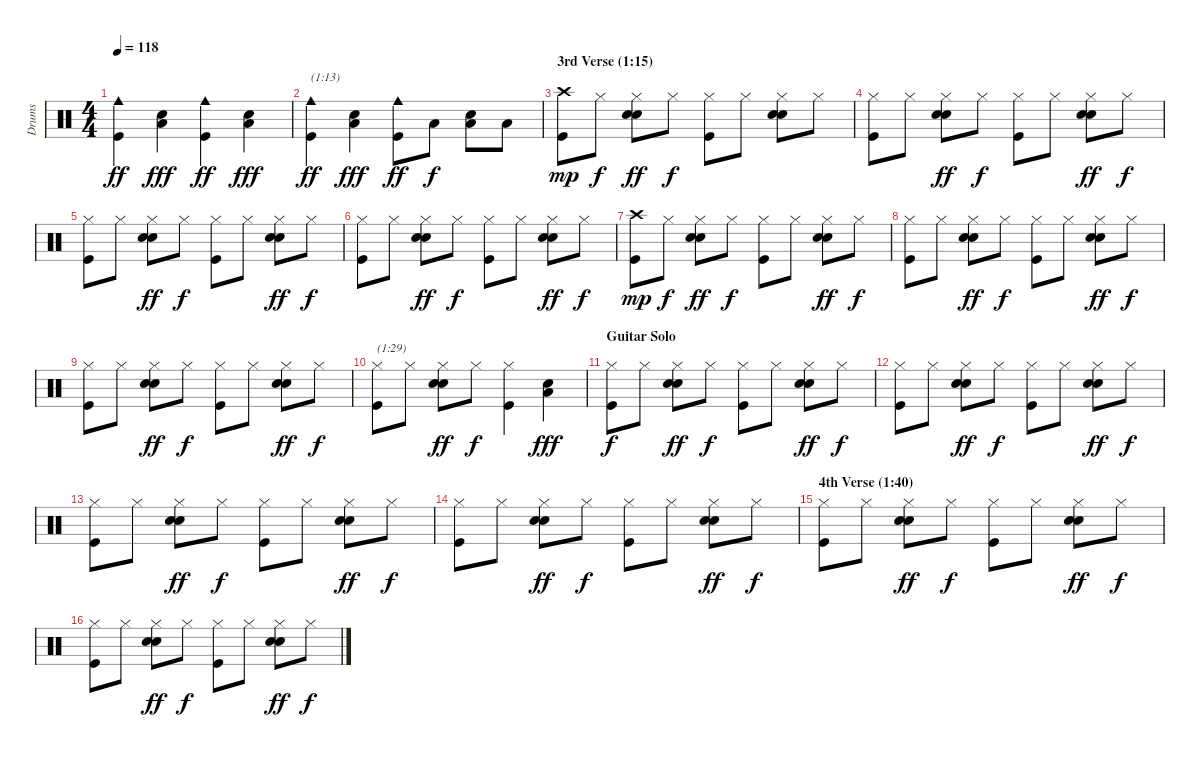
\track ("Drums" "Drums") {instrument percussion}
\staff {score}
\articulation defaults
\ts (4 4)
\tempo 118
\clef neutral
\ks c
("Cowbell medium (hit)" "Kick (hit)").4{dy ff} ("Electric Snare (hit)" "Low Floor Tom (hit)").4{dy fff} ("Cowbell medium (hit)" "Kick (hit)").4{dy ff} ("Electric Snare (hit)" "Low Floor Tom (hit)").4{dy fff} |
("Cowbell medium (hit)" "Kick (hit)").4{txt "(1:13)" dy ff} ("Electric Snare (hit)" "Low Floor Tom (hit)").4{dy fff} ("Cowbell medium (hit)" "Kick (hit)").8{dy ff} "Low Floor Tom (hit)".8{dy f} ("Electric Snare (hit)" "Low Floor Tom (hit)").8 "Low Floor Tom (hit)".8 |
\section ("" "3rd Verse (1:15)")
("Crash high (hit)" "Kick (hit)").8{dy mp} "Hi-Hat (closed)".8{dy f} ("Hi-Hat (closed)" "Electric Snare (hit)" "Snare (hit) 2").8{dy ff} "Hi-Hat (closed)".8{dy f} ("Hi-Hat (closed)" "Kick (hit)").8 "Hi-Hat (closed)".8 ("Hi-Hat (closed)" "Electric Snare (hit)" "Snare (hit) 2").8 "Hi-Hat (closed)".8 |
("Hi-Hat (closed)" "Kick (hit)").8 "Hi-Hat (closed)".8 ("Hi-Hat (closed)" "Electric Snare (hit)" "Snare (hit) 2").8{dy ff} "Hi-Hat (closed)".8{dy f} ("Hi-Hat (closed)" "Kick (hit)").8 "Hi-Hat (closed)".8 ("Hi-Hat (closed)" "Electric Snare (hit)" "Snare (hit) 2").8{dy ff} "Hi-Hat (closed)".8{dy f} |
("Hi-Hat (closed)" "Kick (hit)").8 "Hi-Hat (closed)".8 ("Hi-Hat (closed)" "Electric Snare (hit)" "Snare (hit) 2").8{dy ff} "Hi-Hat (closed)".8{dy f} ("Hi-Hat (closed)" "Kick (hit)").8 "Hi-Hat (closed)".8 ("Hi-Hat (closed)" "Electric Snare (hit)" "Snare (hit) 2").8{dy ff} "Hi-Hat (closed)".8{dy f} |
("Hi-Hat (closed)" "Kick (hit)").8 "Hi-Hat (closed)".8 ("Hi-Hat (closed)" "Electric Snare (hit)" "Snare (hit) 2").8{dy ff} "Hi-Hat (closed)".8{dy f} ("Hi-Hat (closed)" "Kick (hit)").8 "Hi-Hat (closed)".8 ("Hi-Hat (closed)" "Electric Snare (hit)" "Snare (hit) 2").8{dy ff} "Hi-Hat (closed)".8{dy f} |
("Crash high (hit)" "Kick (hit)").8{dy mp} "Hi-Hat (closed)".8{dy f} ("Hi-Hat (closed)" "Electric Snare (hit)" "Snare (hit) 2").8{dy ff} "Hi-Hat (closed)".8{dy f} ("Hi-Hat (closed)" "Kick (hit)").8 "Hi-Hat (closed)".8 ("Hi-Hat (closed)" "Electric Snare (hit)" "Snare (hit) 2").8{dy ff} "Hi-Hat (closed)".8{dy f} |
("Hi-Hat (closed)" "Kick (hit)").8 "Hi-Hat (closed)".8 ("Hi-Hat (closed)" "Electric Snare (hit)" "Snare (hit) 2").8{dy ff} "Hi-Hat (closed)".8{dy f} ("Hi-Hat (closed)" "Kick (hit)").8 "Hi-Hat (closed)".8 ("Hi-Hat (closed)" "Electric Snare (hit)" "Snare (hit) 2").8{dy ff} "Hi-Hat (closed)".8{dy f} |
("Hi-Hat (closed)" "Kick (hit)").8 "Hi-Hat (closed)".8 ("Hi-Hat (closed)" "Electric Snare (hit)" "Snare (hit) 2").8{dy ff} "Hi-Hat (closed)".8{dy f} ("Hi-Hat (closed)" "Kick (hit)").8 "Hi-Hat (closed)".8 ("Hi-Hat (closed)" "Electric Snare (hit)" "Snare (hit) 2").8{dy ff} "Hi-Hat (closed)".8{dy f} |
("Hi-Hat (closed)" "Kick (hit)").8{txt "(1:29)"} "Hi-Hat (closed)".8 ("Hi-Hat (closed)" "Electric Snare (hit)" "Snare (hit) 2").8{dy ff} "Hi-Hat (closed)".8{dy f} ("Hi-Hat (closed)" "Kick (hit)").4 ("Electric Snare (hit)" "Low Floor Tom (hit)").4{dy fff} |
\section ("" "Guitar Solo ")
("Hi-Hat (closed)" "Kick (hit)").8{dy f} "Hi-Hat (closed)".8 ("Hi-Hat (closed)" "Electric Snare (hit)" "Snare (hit) 2").8{dy ff} "Hi-Hat (closed)".8{dy f} ("Hi-Hat (closed)" "Kick (hit)").8 "Hi-Hat (closed)".8 ("Hi-Hat (closed)" "Electric Snare (hit)" "Snare (hit) 2").8{dy ff} "Hi-Hat (closed)".8{dy f} |
("Hi-Hat (closed)" "Kick (hit)").8 "Hi-Hat (closed)".8 ("Hi-Hat (closed)" "Electric Snare (hit)" "Snare (hit) 2").8{dy ff} "Hi-Hat (closed)".8{dy f} ("Hi-Hat (closed)" "Kick (hit)").8 "Hi-Hat (closed)".8 ("Hi-Hat (closed)" "Electric Snare (hit)" "Snare (hit) 2").8{dy ff} "Hi-Hat (closed)".8{dy f} |
("Hi-Hat (closed)" "Kick (hit)").8 "Hi-Hat (closed)".8 ("Hi-Hat (closed)" "Electric Snare (hit)" "Snare (hit) 2").8{dy ff} "Hi-Hat (closed)".8{dy f} ("Hi-Hat (closed)" "Kick (hit)").8 "Hi-Hat (closed)".8 ("Hi-Hat (closed)" "Electric Snare (hit)" "Snare (hit) 2").8{dy ff} "Hi-Hat (closed)".8{dy f} |
("Hi-Hat (closed)" "Kick (hit)").8 "Hi-Hat (closed)".8 ("Hi-Hat (closed)" "Electric Snare (hit)" "Snare (hit) 2").8{dy ff} "Hi-Hat (closed)".8{dy f} ("Hi-Hat (closed)" "Kick (hit)").8 "Hi-Hat (closed)".8 ("Hi-Hat (closed)" "Electric Snare (hit)" "Snare (hit) 2").8{dy ff} "Hi-Hat (closed)".8{dy f} |
\section ("" "4th Verse (1:40)")
("Hi-Hat (closed)" "Kick (hit)").8 "Hi-Hat (closed)".8 ("Hi-Hat (closed)" "Electric Snare (hit)" "Snare (hit) 2").8{dy ff} "Hi-Hat (closed)".8{dy f} ("Hi-Hat (closed)" "Kick (hit)").8 "Hi-Hat (closed)".8 ("Hi-Hat (closed)" "Electric Snare (hit)" "Snare (hit) 2").8{dy ff} "Hi-Hat (closed)".8{dy f} |
("Hi-Hat (closed)" "Kick (hit)").8 "Hi-Hat (closed)".8 ("Hi-Hat (closed)" "Electric Snare (hit)" "Snare (hit) 2").8{dy ff} "Hi-Hat (closed)".8{dy f} ("Hi-Hat (closed)" "Kick (hit)").8 "Hi-Hat (closed)".8 ("Hi-Hat (closed)" "Electric Snare (hit)" "Snare (hit) 2").8{dy ff} "Hi-Hat (closed)".8{dy f}
